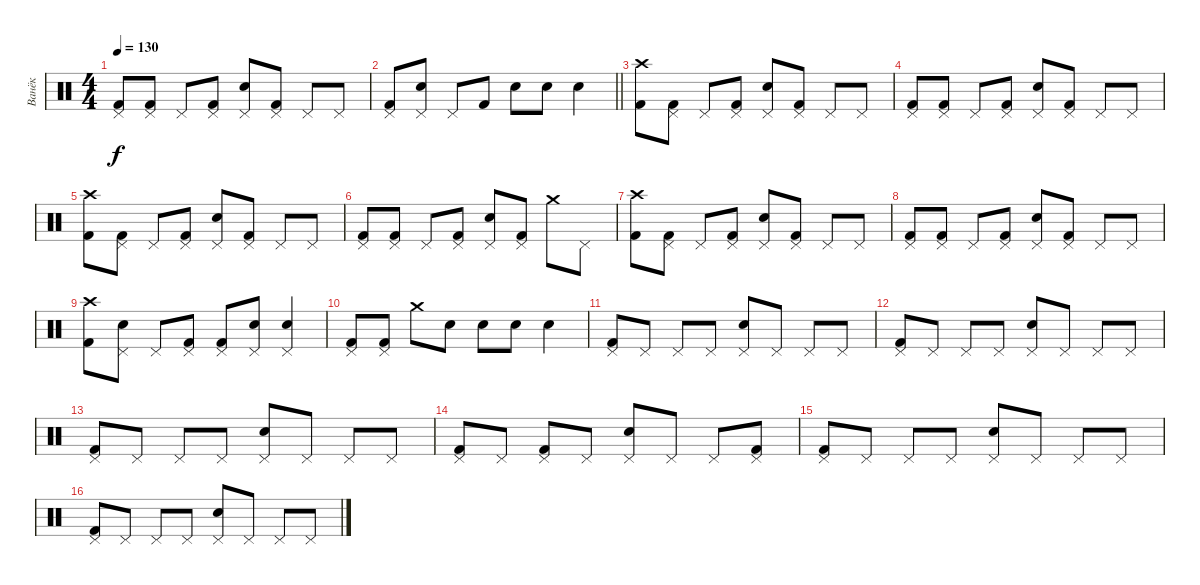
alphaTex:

\track ("Ванёк" "Ванёк") {instrument percussion}
\staff {score}
\articulation defaults
\ts (4 4)
\tempo 130
\clef neutral
\ks c
("Pedal Hi-Hat (hit)" "Kick (hit) 2").8{dy f} ("Pedal Hi-Hat (hit)" "Kick (hit) 2").8 "Pedal Hi-Hat (hit)".8 ("Pedal Hi-Hat (hit)" "Kick (hit) 2").8 ("Pedal Hi-Hat (hit)" "Snare (hit) 2").8 ("Pedal Hi-Hat (hit)" "Kick (hit) 2").8 "Pedal Hi-Hat (hit)".8 "Pedal Hi-Hat (hit)".8 |
\barLineRight lightlight
("Pedal Hi-Hat (hit)" "Kick (hit) 2").8 ("Pedal Hi-Hat (hit)" "Snare (hit) 2").8 "Pedal Hi-Hat (hit)".8 "Kick (hit) 2".8 "Snare (hit) 2".8 "Snare (hit) 2".8 "Snare (hit) 2".4 |
("Crash high (hit)" "Kick (hit) 2").8 ("Pedal Hi-Hat (hit)" "Kick (hit) 2").8 "Pedal Hi-Hat (hit)".8 ("Pedal Hi-Hat (hit)" "Kick (hit) 2").8 ("Pedal Hi-Hat (hit)" "Snare (hit) 2").8 ("Pedal Hi-Hat (hit)" "Kick (hit) 2").8 "Pedal Hi-Hat (hit)".8 "Pedal Hi-Hat (hit)".8 |
("Pedal Hi-Hat (hit)" "Kick (hit) 2").8 ("Pedal Hi-Hat (hit)" "Kick (hit) 2").8 "Pedal Hi-Hat (hit)".8 ("Pedal Hi-Hat (hit)" "Kick (hit) 2").8 ("Pedal Hi-Hat (hit)" "Snare (hit) 2").8 ("Pedal Hi-Hat (hit)" "Kick (hit) 2").8 "Pedal Hi-Hat (hit)".8 "Pedal Hi-Hat (hit)".8 |
("Crash high (hit)" "Kick (hit) 2").8 ("Pedal Hi-Hat (hit)" "Kick (hit) 2").8 "Pedal Hi-Hat (hit)".8 ("Pedal Hi-Hat (hit)" "Kick (hit) 2").8 ("Pedal Hi-Hat (hit)" "Snare (hit) 2").8 ("Pedal Hi-Hat (hit)" "Kick (hit) 2").8 "Pedal Hi-Hat (hit)".8 "Pedal Hi-Hat (hit)".8 |
("Pedal Hi-Hat (hit)" "Kick (hit) 2").8 ("Pedal Hi-Hat (hit)" "Kick (hit) 2").8 "Pedal Hi-Hat (hit)".8 ("Pedal Hi-Hat (hit)" "Kick (hit) 2").8 ("Pedal Hi-Hat (hit)" "Snare (hit) 2").8 ("Pedal Hi-Hat (hit)" "Kick (hit) 2").8 "Crash medium (hit)".8 "Pedal Hi-Hat (hit)".8 |
("Crash high (hit)" "Kick (hit) 2").8 ("Pedal Hi-Hat (hit)" "Kick (hit) 2").8 "Pedal Hi-Hat (hit)".8 ("Pedal Hi-Hat (hit)" "Kick (hit) 2").8 ("Pedal Hi-Hat (hit)" "Snare (hit) 2").8 ("Pedal Hi-Hat (hit)" "Kick (hit) 2").8 "Pedal Hi-Hat (hit)".8 "Pedal Hi-Hat (hit)".8 |
("Pedal Hi-Hat (hit)" "Kick (hit) 2").8 ("Pedal Hi-Hat (hit)" "Kick (hit) 2").8 "Pedal Hi-Hat (hit)".8 ("Pedal Hi-Hat (hit)" "Kick (hit) 2").8 ("Pedal Hi-Hat (hit)" "Snare (hit) 2").8 ("Pedal Hi-Hat (hit)" "Kick (hit) 2").8 "Pedal Hi-Hat (hit)".8 "Pedal Hi-Hat (hit)".8 |
("Crash high (hit)" "Kick (hit) 2").8 ("Pedal Hi-Hat (hit)" "Snare (hit) 2").8 "Pedal Hi-Hat (hit)".8 ("Pedal Hi-Hat (hit)" "Kick (hit) 2").8 ("Pedal Hi-Hat (hit)" "Kick (hit) 2").8 ("Pedal Hi-Hat (hit)" "Snare (hit) 2").8 ("Pedal Hi-Hat (hit)" "Snare (hit) 2").4 |
("Pedal Hi-Hat (hit)" "Kick (hit) 2").8 ("Pedal Hi-Hat (hit)" "Kick (hit) 2").8 "Crash medium (hit)".8 "Snare (hit) 2".8 "Snare (hit) 2".8 "Snare (hit) 2".8 "Snare (hit) 2".4 |
("Pedal Hi-Hat (hit)" "Kick (hit) 2").8 "Pedal Hi-Hat (hit)".8 "Pedal Hi-Hat (hit)".8 "Pedal Hi-Hat (hit)".8 ("Pedal Hi-Hat (hit)" "Snare (hit) 2").8 "Pedal Hi-Hat (hit)".8 "Pedal Hi-Hat (hit)".8 "Pedal Hi-Hat (hit)".8 |
("Pedal Hi-Hat (hit)" "Kick (hit) 2").8 "Pedal Hi-Hat (hit)".8 "Pedal Hi-Hat (hit)".8 "Pedal Hi-Hat (hit)".8 ("Pedal Hi-Hat (hit)" "Snare (hit) 2").8 "Pedal Hi-Hat (hit)".8 "Pedal Hi-Hat (hit)".8 "Pedal Hi-Hat (hit)".8 |
("Pedal Hi-Hat (hit)" "Kick (hit) 2").8 "Pedal Hi-Hat (hit)".8 "Pedal Hi-Hat (hit)".8 "Pedal Hi-Hat (hit)".8 ("Pedal Hi-Hat (hit)" "Snare (hit) 2").8 "Pedal Hi-Hat (hit)".8 "Pedal Hi-Hat (hit)".8 "Pedal Hi-Hat (hit)".8 |
("Pedal Hi-Hat (hit)" "Kick (hit) 2").8 "Pedal Hi-Hat (hit)".8 ("Pedal Hi-Hat (hit)" "Kick (hit) 2").8 "Pedal Hi-Hat (hit)".8 ("Pedal Hi-Hat (hit)" "Snare (hit) 2").8 "Pedal Hi-Hat (hit)".8 "Pedal Hi-Hat (hit)".8 ("Pedal Hi-Hat (hit)" "Kick (hit) 2").8 |
("Pedal Hi-Hat (hit)" "Kick (hit) 2").8 "Pedal Hi-Hat (hit)".8 "Pedal Hi-Hat (hit)".8 "Pedal Hi-Hat (hit)".8 ("Pedal Hi-Hat (hit)" "Snare (hit) 2").8 "Pedal Hi-Hat (hit)".8 "Pedal Hi-Hat (hit)".8 "Pedal Hi-Hat (hit)".8 |
("Pedal Hi-Hat (hit)" "Kick (hit) 2").8 "Pedal Hi-Hat (hit)".8 "Pedal Hi-Hat (hit)".8 "Pedal Hi-Hat (hit)".8 ("Pedal Hi-Hat (hit)" "Snare (hit) 2").8 "Pedal Hi-Hat (hit)".8 "Pedal Hi-Hat (hit)".8 "Pedal Hi-Hat (hit)".8
